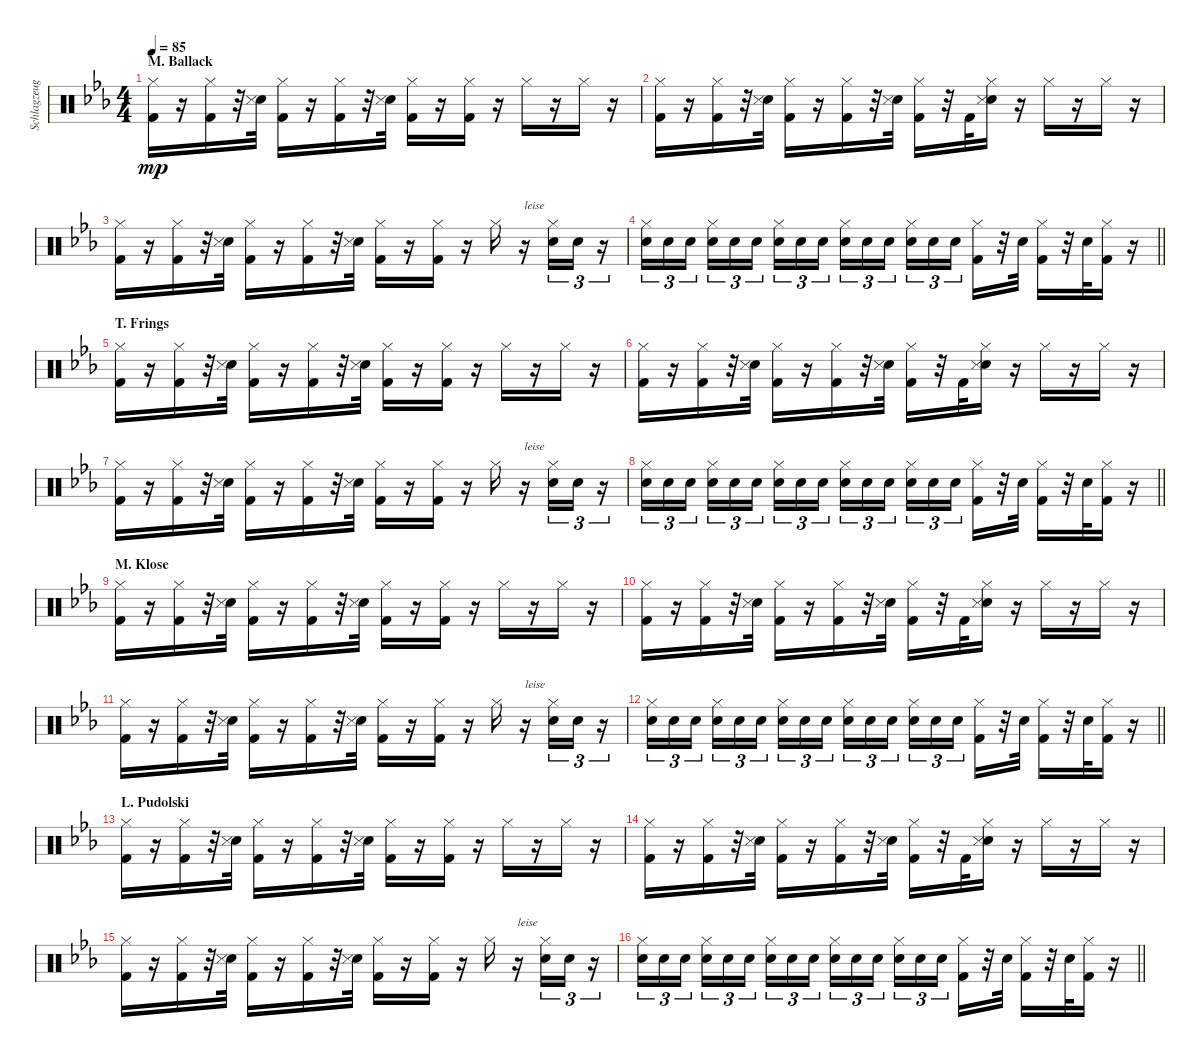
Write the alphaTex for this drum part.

\track ("Schlagzeug" "Schlagzeug") {instrument percussion}
\staff {score}
\articulation defaults
\ts (4 4)
\section ("" "M. Ballack")
\tempo 85
\clef neutral
\ks cminor
("Hi-Hat (closed)" "Kick (hit) 2").16{dy mp} r.16 ("Hi-Hat (closed)" "Kick (hit) 2").16 r.32 ("Electric Snare (hit)" "Snare (side stick) 3").32 ("Hi-Hat (closed)" "Kick (hit) 2").16 r.16 ("Hi-Hat (closed)" "Kick (hit) 2").16 r.32 ("Electric Snare (hit)" "Snare (side stick) 3").32 ("Hi-Hat (closed)" "Kick (hit) 2").16 r.16 ("Hi-Hat (closed)" "Kick (hit) 2").16 r.16 "Hi-Hat (closed)".16 r.16 "Hi-Hat (closed)".16 r.16 |
("Hi-Hat (closed)" "Kick (hit) 2").16 r.16 ("Hi-Hat (closed)" "Kick (hit) 2").16 r.32 ("Electric Snare (hit)" "Snare (side stick) 3").32 ("Hi-Hat (closed)" "Kick (hit) 2").16 r.16 ("Hi-Hat (closed)" "Kick (hit) 2").16 r.32 ("Electric Snare (hit)" "Snare (side stick) 3").32 ("Hi-Hat (closed)" "Kick (hit) 2").16 r.32 "Kick (hit) 2".32 ("Hi-Hat (closed)" "Electric Snare (hit)" "Snare (side stick) 3").16 r.16 "Hi-Hat (closed)".16 r.16 "Hi-Hat (closed)".16 r.16 |
("Hi-Hat (closed)" "Kick (hit) 2").16 r.16 ("Hi-Hat (closed)" "Kick (hit) 2").16 r.32 ("Electric Snare (hit)" "Snare (side stick) 3").32 ("Hi-Hat (closed)" "Kick (hit) 2").16 r.16 ("Hi-Hat (closed)" "Kick (hit) 2").16 r.32 ("Electric Snare (hit)" "Snare (side stick) 3").32 ("Hi-Hat (closed)" "Kick (hit) 2").16 r.16 ("Hi-Hat (closed)" "Kick (hit) 2").16 r.16 "Hi-Hat (closed)".16 r.16{txt "leise" volume 5} ("Hi-Hat (closed)" "Electric Snare (hit)").16{tu (3 2)} "Electric Snare (hit)".16{tu (3 2)} r.16{tu (3 2)} |
\barLineRight lightlight
("Hi-Hat (closed)" "Electric Snare (hit)").16{tu (3 2) volume 15} "Electric Snare (hit)".16{tu (3 2)} "Electric Snare (hit)".16{tu (3 2) beam splitsecondary} ("Hi-Hat (closed)" "Electric Snare (hit)").16{tu (3 2)} "Electric Snare (hit)".16{tu (3 2)} "Electric Snare (hit)".16{tu (3 2)} ("Hi-Hat (closed)" "Electric Snare (hit)").16{tu (3 2)} "Electric Snare (hit)".16{tu (3 2)} "Electric Snare (hit)".16{tu (3 2) beam splitsecondary} ("Hi-Hat (closed)" "Electric Snare (hit)").16{tu (3 2)} "Electric Snare (hit)".16{tu (3 2)} "Electric Snare (hit)".16{tu (3 2)} ("Hi-Hat (closed)" "Electric Snare (hit)").16{tu (3 2)} "Electric Snare (hit)".16{tu (3 2)} "Electric Snare (hit)".16{tu (3 2) beam splitsecondary} ("Hi-Hat (closed)" "Kick (hit) 2").16 r.32 "Electric Snare (hit)".32 ("Hi-Hat (closed)" "Kick (hit) 2").16 r.32 "Electric Snare (hit)".32 ("Hi-Hat (closed)" "Kick (hit) 2").16 r.16 |
\section ("" "T. Frings")
("Hi-Hat (closed)" "Kick (hit) 2").16 r.16 ("Hi-Hat (closed)" "Kick (hit) 2").16 r.32 ("Electric Snare (hit)" "Snare (side stick) 3").32 ("Hi-Hat (closed)" "Kick (hit) 2").16 r.16 ("Hi-Hat (closed)" "Kick (hit) 2").16 r.32 ("Electric Snare (hit)" "Snare (side stick) 3").32 ("Hi-Hat (closed)" "Kick (hit) 2").16 r.16 ("Hi-Hat (closed)" "Kick (hit) 2").16 r.16 "Hi-Hat (closed)".16 r.16 "Hi-Hat (closed)".16 r.16 |
("Hi-Hat (closed)" "Kick (hit) 2").16 r.16 ("Hi-Hat (closed)" "Kick (hit) 2").16 r.32 ("Electric Snare (hit)" "Snare (side stick) 3").32 ("Hi-Hat (closed)" "Kick (hit) 2").16 r.16 ("Hi-Hat (closed)" "Kick (hit) 2").16 r.32 ("Electric Snare (hit)" "Snare (side stick) 3").32 ("Hi-Hat (closed)" "Kick (hit) 2").16 r.32 "Kick (hit) 2".32 ("Hi-Hat (closed)" "Electric Snare (hit)" "Snare (side stick) 3").16 r.16 "Hi-Hat (closed)".16 r.16 "Hi-Hat (closed)".16 r.16 |
("Hi-Hat (closed)" "Kick (hit) 2").16 r.16 ("Hi-Hat (closed)" "Kick (hit) 2").16 r.32 ("Electric Snare (hit)" "Snare (side stick) 3").32 ("Hi-Hat (closed)" "Kick (hit) 2").16 r.16 ("Hi-Hat (closed)" "Kick (hit) 2").16 r.32 ("Electric Snare (hit)" "Snare (side stick) 3").32 ("Hi-Hat (closed)" "Kick (hit) 2").16 r.16 ("Hi-Hat (closed)" "Kick (hit) 2").16 r.16 "Hi-Hat (closed)".16 r.16{txt "leise" volume 5} ("Hi-Hat (closed)" "Electric Snare (hit)").16{tu (3 2)} "Electric Snare (hit)".16{tu (3 2)} r.16{tu (3 2)} |
\barLineRight lightlight
("Hi-Hat (closed)" "Electric Snare (hit)").16{tu (3 2) volume 15} "Electric Snare (hit)".16{tu (3 2)} "Electric Snare (hit)".16{tu (3 2) beam splitsecondary} ("Hi-Hat (closed)" "Electric Snare (hit)").16{tu (3 2)} "Electric Snare (hit)".16{tu (3 2)} "Electric Snare (hit)".16{tu (3 2)} ("Hi-Hat (closed)" "Electric Snare (hit)").16{tu (3 2)} "Electric Snare (hit)".16{tu (3 2)} "Electric Snare (hit)".16{tu (3 2) beam splitsecondary} ("Hi-Hat (closed)" "Electric Snare (hit)").16{tu (3 2)} "Electric Snare (hit)".16{tu (3 2)} "Electric Snare (hit)".16{tu (3 2)} ("Hi-Hat (closed)" "Electric Snare (hit)").16{tu (3 2)} "Electric Snare (hit)".16{tu (3 2)} "Electric Snare (hit)".16{tu (3 2) beam splitsecondary} ("Hi-Hat (closed)" "Kick (hit) 2").16 r.32 "Electric Snare (hit)".32 ("Hi-Hat (closed)" "Kick (hit) 2").16 r.32 "Electric Snare (hit)".32 ("Hi-Hat (closed)" "Kick (hit) 2").16 r.16 |
\section ("" "M. Klose")
("Hi-Hat (closed)" "Kick (hit) 2").16 r.16 ("Hi-Hat (closed)" "Kick (hit) 2").16 r.32 ("Electric Snare (hit)" "Snare (side stick) 3").32 ("Hi-Hat (closed)" "Kick (hit) 2").16 r.16 ("Hi-Hat (closed)" "Kick (hit) 2").16 r.32 ("Electric Snare (hit)" "Snare (side stick) 3").32 ("Hi-Hat (closed)" "Kick (hit) 2").16 r.16 ("Hi-Hat (closed)" "Kick (hit) 2").16 r.16 "Hi-Hat (closed)".16 r.16 "Hi-Hat (closed)".16 r.16 |
("Hi-Hat (closed)" "Kick (hit) 2").16 r.16 ("Hi-Hat (closed)" "Kick (hit) 2").16 r.32 ("Electric Snare (hit)" "Snare (side stick) 3").32 ("Hi-Hat (closed)" "Kick (hit) 2").16 r.16 ("Hi-Hat (closed)" "Kick (hit) 2").16 r.32 ("Electric Snare (hit)" "Snare (side stick) 3").32 ("Hi-Hat (closed)" "Kick (hit) 2").16 r.32 "Kick (hit) 2".32 ("Hi-Hat (closed)" "Electric Snare (hit)" "Snare (side stick) 3").16 r.16 "Hi-Hat (closed)".16 r.16 "Hi-Hat (closed)".16 r.16 |
("Hi-Hat (closed)" "Kick (hit) 2").16 r.16 ("Hi-Hat (closed)" "Kick (hit) 2").16 r.32 ("Electric Snare (hit)" "Snare (side stick) 3").32 ("Hi-Hat (closed)" "Kick (hit) 2").16 r.16 ("Hi-Hat (closed)" "Kick (hit) 2").16 r.32 ("Electric Snare (hit)" "Snare (side stick) 3").32 ("Hi-Hat (closed)" "Kick (hit) 2").16 r.16 ("Hi-Hat (closed)" "Kick (hit) 2").16 r.16 "Hi-Hat (closed)".16 r.16{txt "leise" volume 5} ("Hi-Hat (closed)" "Electric Snare (hit)").16{tu (3 2)} "Electric Snare (hit)".16{tu (3 2)} r.16{tu (3 2)} |
\barLineRight lightlight
("Hi-Hat (closed)" "Electric Snare (hit)").16{tu (3 2) volume 15} "Electric Snare (hit)".16{tu (3 2)} "Electric Snare (hit)".16{tu (3 2) beam splitsecondary} ("Hi-Hat (closed)" "Electric Snare (hit)").16{tu (3 2)} "Electric Snare (hit)".16{tu (3 2)} "Electric Snare (hit)".16{tu (3 2)} ("Hi-Hat (closed)" "Electric Snare (hit)").16{tu (3 2)} "Electric Snare (hit)".16{tu (3 2)} "Electric Snare (hit)".16{tu (3 2) beam splitsecondary} ("Hi-Hat (closed)" "Electric Snare (hit)").16{tu (3 2)} "Electric Snare (hit)".16{tu (3 2)} "Electric Snare (hit)".16{tu (3 2)} ("Hi-Hat (closed)" "Electric Snare (hit)").16{tu (3 2)} "Electric Snare (hit)".16{tu (3 2)} "Electric Snare (hit)".16{tu (3 2) beam splitsecondary} ("Hi-Hat (closed)" "Kick (hit) 2").16 r.32 "Electric Snare (hit)".32 ("Hi-Hat (closed)" "Kick (hit) 2").16 r.32 "Electric Snare (hit)".32 ("Hi-Hat (closed)" "Kick (hit) 2").16 r.16 |
\section ("" "L. Pudolski")
("Hi-Hat (closed)" "Kick (hit) 2").16 r.16 ("Hi-Hat (closed)" "Kick (hit) 2").16 r.32 ("Electric Snare (hit)" "Snare (side stick) 3").32 ("Hi-Hat (closed)" "Kick (hit) 2").16 r.16 ("Hi-Hat (closed)" "Kick (hit) 2").16 r.32 ("Electric Snare (hit)" "Snare (side stick) 3").32 ("Hi-Hat (closed)" "Kick (hit) 2").16 r.16 ("Hi-Hat (closed)" "Kick (hit) 2").16 r.16 "Hi-Hat (closed)".16 r.16 "Hi-Hat (closed)".16 r.16 |
("Hi-Hat (closed)" "Kick (hit) 2").16 r.16 ("Hi-Hat (closed)" "Kick (hit) 2").16 r.32 ("Electric Snare (hit)" "Snare (side stick) 3").32 ("Hi-Hat (closed)" "Kick (hit) 2").16 r.16 ("Hi-Hat (closed)" "Kick (hit) 2").16 r.32 ("Electric Snare (hit)" "Snare (side stick) 3").32 ("Hi-Hat (closed)" "Kick (hit) 2").16 r.32 "Kick (hit) 2".32 ("Hi-Hat (closed)" "Electric Snare (hit)" "Snare (side stick) 3").16 r.16 "Hi-Hat (closed)".16 r.16 "Hi-Hat (closed)".16 r.16 |
("Hi-Hat (closed)" "Kick (hit) 2").16 r.16 ("Hi-Hat (closed)" "Kick (hit) 2").16 r.32 ("Electric Snare (hit)" "Snare (side stick) 3").32 ("Hi-Hat (closed)" "Kick (hit) 2").16 r.16 ("Hi-Hat (closed)" "Kick (hit) 2").16 r.32 ("Electric Snare (hit)" "Snare (side stick) 3").32 ("Hi-Hat (closed)" "Kick (hit) 2").16 r.16 ("Hi-Hat (closed)" "Kick (hit) 2").16 r.16 "Hi-Hat (closed)".16 r.16{txt "leise" volume 5} ("Hi-Hat (closed)" "Electric Snare (hit)").16{tu (3 2)} "Electric Snare (hit)".16{tu (3 2)} r.16{tu (3 2)} |
\barLineRight lightlight
("Hi-Hat (closed)" "Electric Snare (hit)").16{tu (3 2) volume 15} "Electric Snare (hit)".16{tu (3 2)} "Electric Snare (hit)".16{tu (3 2) beam splitsecondary} ("Hi-Hat (closed)" "Electric Snare (hit)").16{tu (3 2)} "Electric Snare (hit)".16{tu (3 2)} "Electric Snare (hit)".16{tu (3 2)} ("Hi-Hat (closed)" "Electric Snare (hit)").16{tu (3 2)} "Electric Snare (hit)".16{tu (3 2)} "Electric Snare (hit)".16{tu (3 2) beam splitsecondary} ("Hi-Hat (closed)" "Electric Snare (hit)").16{tu (3 2)} "Electric Snare (hit)".16{tu (3 2)} "Electric Snare (hit)".16{tu (3 2)} ("Hi-Hat (closed)" "Electric Snare (hit)").16{tu (3 2)} "Electric Snare (hit)".16{tu (3 2)} "Electric Snare (hit)".16{tu (3 2) beam splitsecondary} ("Hi-Hat (closed)" "Kick (hit) 2").16 r.32 "Electric Snare (hit)".32 ("Hi-Hat (closed)" "Kick (hit) 2").16 r.32 "Electric Snare (hit)".32 ("Hi-Hat (closed)" "Kick (hit) 2").16 r.16
